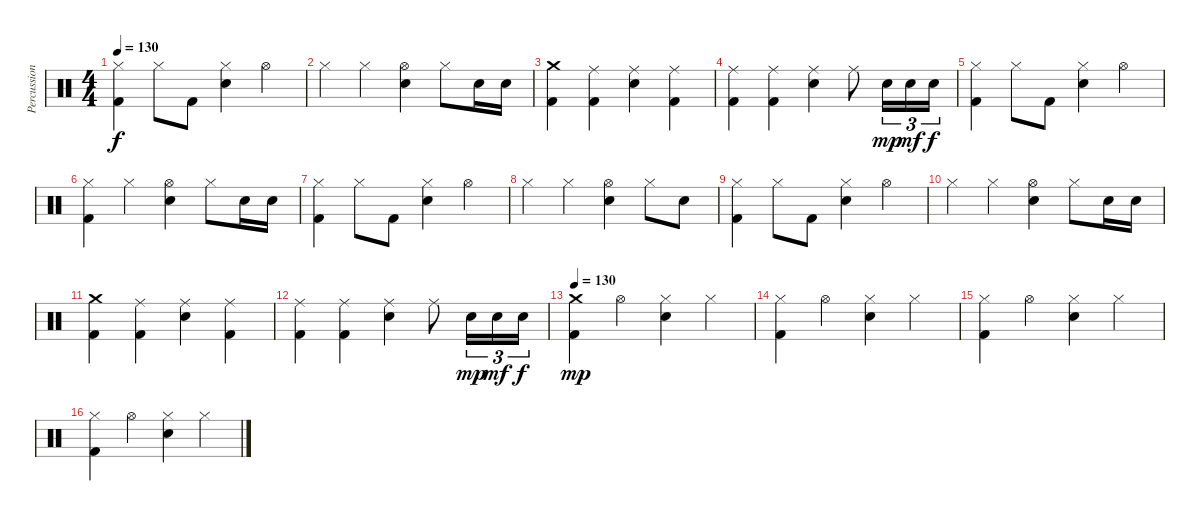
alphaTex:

\track ("Percussions" "Percussion") {instrument percussion}
\staff {score}
\articulation defaults
\ts (4 4)
\tempo 130
\clef neutral
\ks c
("Hi-Hat (closed)" "Kick (hit) 2").4{dy f} "Hi-Hat (closed)".8 "Kick (hit) 2".8 ("Hi-Hat (closed)" "Snare (hit) 2").4 "Hi-Hat (open)".4 |
"Hi-Hat (closed)".4 "Hi-Hat (closed)".4 ("Hi-Hat (open)" "Snare (hit) 2").4 "Hi-Hat (closed)".8 "Snare (hit) 2".16 "Snare (hit) 2".16 |
("Crash medium (hit)" "Kick (hit) 2").4 ("Ride (middle)" "Kick (hit) 2").4 ("Ride (middle)" "Snare (hit) 2").4 ("Ride (middle)" "Kick (hit) 2").4 |
("Ride (middle)" "Kick (hit) 2").4 ("Ride (middle)" "Kick (hit) 2").4 ("Ride (middle)" "Snare (hit) 2").4 "Ride (middle)".8 "Snare (hit) 2".16{tu (3 2) dy mp} "Snare (hit) 2".16{tu (3 2) dy mf} "Snare (hit) 2".16{tu (3 2) dy f} |
("Hi-Hat (closed)" "Kick (hit) 2").4 "Hi-Hat (closed)".8 "Kick (hit) 2".8 ("Hi-Hat (closed)" "Snare (hit) 2").4 "Hi-Hat (open)".4 |
("Hi-Hat (closed)" "Kick (hit) 2").4 "Hi-Hat (closed)".4 ("Hi-Hat (open)" "Snare (hit) 2").4 "Hi-Hat (closed)".8 "Snare (hit) 2".16 "Snare (hit) 2".16 |
("Hi-Hat (closed)" "Kick (hit) 2").4 "Hi-Hat (closed)".8 "Kick (hit) 2".8 ("Hi-Hat (closed)" "Snare (hit) 2").4 "Hi-Hat (open)".4 |
"Hi-Hat (closed)".4 "Hi-Hat (closed)".4 ("Hi-Hat (open)" "Snare (hit) 2").4 "Hi-Hat (closed)".8 "Snare (hit) 2".8 |
("Hi-Hat (closed)" "Kick (hit) 2").4 "Hi-Hat (closed)".8 "Kick (hit) 2".8 ("Hi-Hat (closed)" "Snare (hit) 2").4 "Hi-Hat (open)".4 |
"Hi-Hat (closed)".4 "Hi-Hat (closed)".4 ("Hi-Hat (open)" "Snare (hit) 2").4 "Hi-Hat (closed)".8 "Snare (hit) 2".16 "Snare (hit) 2".16 |
("Crash medium (hit)" "Kick (hit) 2").4 ("Ride (middle)" "Kick (hit) 2").4 ("Ride (middle)" "Snare (hit) 2").4 ("Ride (middle)" "Kick (hit) 2").4 |
("Ride (middle)" "Kick (hit) 2").4 ("Ride (middle)" "Kick (hit) 2").4 ("Ride (middle)" "Snare (hit) 2").4 "Ride (middle)".8 "Snare (hit) 2".16{tu (3 2) dy mp} "Snare (hit) 2".16{tu (3 2) dy mf} "Snare (hit) 2".16{tu (3 2) dy f} |
\tempo 130
("Crash medium (hit)" "Kick (hit) 2").4{dy mp} "Hi-Hat (open)".4 ("Hi-Hat (closed)" "Snare (hit) 2").4 "Hi-Hat (closed)".4 |
("Hi-Hat (closed)" "Kick (hit) 2").4 "Hi-Hat (open)".4 ("Hi-Hat (closed)" "Snare (hit) 2").4 "Hi-Hat (closed)".4 |
("Hi-Hat (closed)" "Kick (hit) 2").4 "Hi-Hat (open)".4 ("Hi-Hat (closed)" "Snare (hit) 2").4 "Hi-Hat (closed)".4 |
("Hi-Hat (closed)" "Kick (hit) 2").4 "Hi-Hat (open)".4 ("Hi-Hat (closed)" "Snare (hit) 2").4 "Hi-Hat (closed)".4
